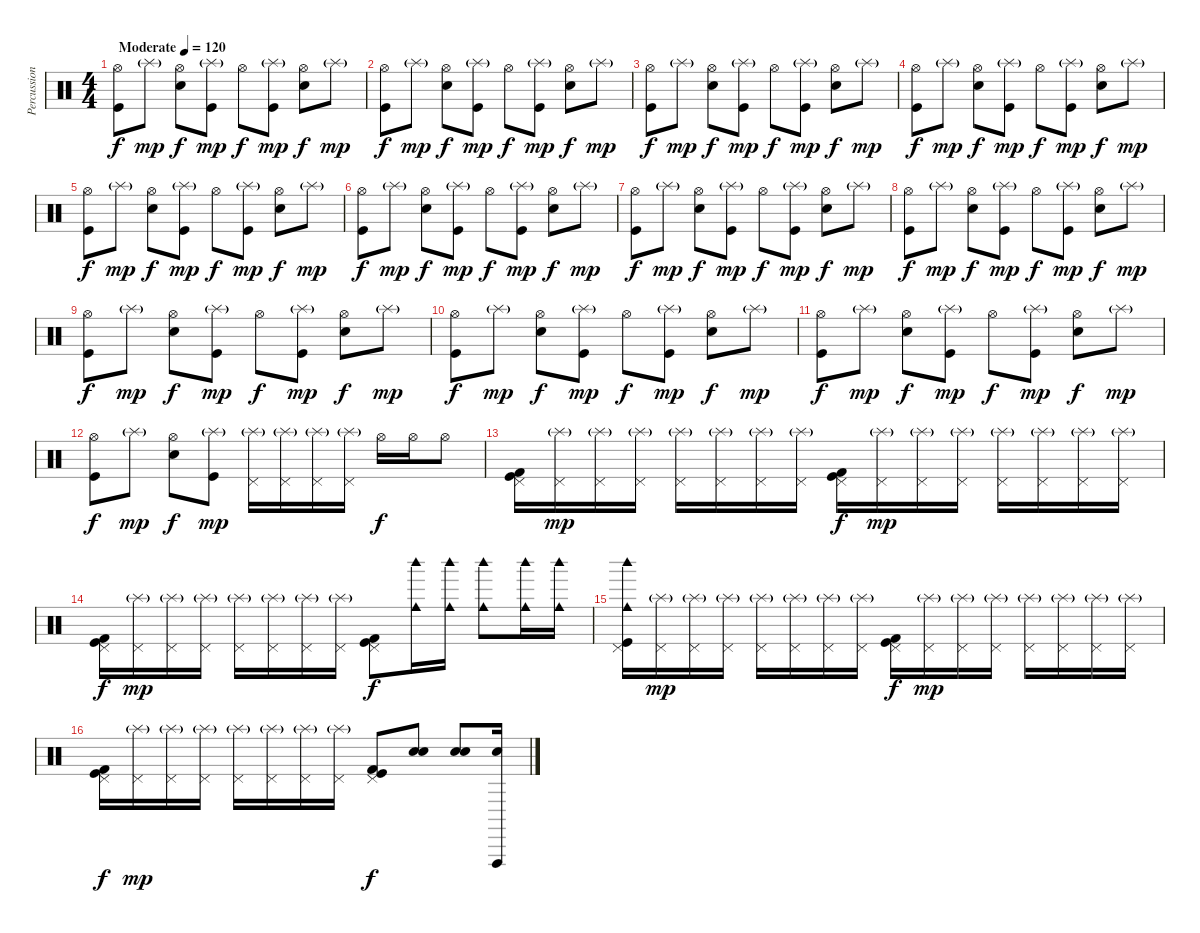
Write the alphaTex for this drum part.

\track ("Percussion" "Percussion") {instrument percussion}
\staff {score}
\articulation defaults
\ts (4 4)
\tempo (120 "Moderate")
\clef neutral
\ks c
("Hi-Hat (open)" "Kick (hit)").8{dy f} "Splash (hit)"{g}.8{dy mp} ("Hi-Hat (open)" "Electric Snare (hit)").8{dy f} ("Splash (hit)"{g} "Kick (hit)").8{dy mp} "Hi-Hat (open)".8{dy f} ("Splash (hit)"{g} "Kick (hit)").8{dy mp} ("Hi-Hat (open)" "Electric Snare (hit)").8{dy f} "Splash (hit)"{g}.8{dy mp} |
("Hi-Hat (open)" "Kick (hit)").8{dy f} "Splash (hit)"{g}.8{dy mp} ("Hi-Hat (open)" "Electric Snare (hit)").8{dy f} ("Splash (hit)"{g} "Kick (hit)").8{dy mp} "Hi-Hat (open)".8{dy f} ("Splash (hit)"{g} "Kick (hit)").8{dy mp} ("Hi-Hat (open)" "Electric Snare (hit)").8{dy f} "Splash (hit)"{g}.8{dy mp} |
("Hi-Hat (open)" "Kick (hit)").8{dy f} "Splash (hit)"{g}.8{dy mp} ("Hi-Hat (open)" "Electric Snare (hit)").8{dy f} ("Splash (hit)"{g} "Kick (hit)").8{dy mp} "Hi-Hat (open)".8{dy f} ("Splash (hit)"{g} "Kick (hit)").8{dy mp} ("Hi-Hat (open)" "Electric Snare (hit)").8{dy f} "Splash (hit)"{g}.8{dy mp} |
("Hi-Hat (open)" "Kick (hit)").8{dy f} "Splash (hit)"{g}.8{dy mp} ("Hi-Hat (open)" "Electric Snare (hit)").8{dy f} ("Splash (hit)"{g} "Kick (hit)").8{dy mp} "Hi-Hat (open)".8{dy f} ("Splash (hit)"{g} "Kick (hit)").8{dy mp} ("Hi-Hat (open)" "Electric Snare (hit)").8{dy f} "Splash (hit)"{g}.8{dy mp} |
("Hi-Hat (open)" "Kick (hit)").8{dy f} "Splash (hit)"{g}.8{dy mp} ("Hi-Hat (open)" "Electric Snare (hit)").8{dy f} ("Splash (hit)"{g} "Kick (hit)").8{dy mp} "Hi-Hat (open)".8{dy f} ("Splash (hit)"{g} "Kick (hit)").8{dy mp} ("Hi-Hat (open)" "Electric Snare (hit)").8{dy f} "Splash (hit)"{g}.8{dy mp} |
("Hi-Hat (open)" "Kick (hit)").8{dy f} "Splash (hit)"{g}.8{dy mp} ("Hi-Hat (open)" "Electric Snare (hit)").8{dy f} ("Splash (hit)"{g} "Kick (hit)").8{dy mp} "Hi-Hat (open)".8{dy f} ("Splash (hit)"{g} "Kick (hit)").8{dy mp} ("Hi-Hat (open)" "Electric Snare (hit)").8{dy f} "Splash (hit)"{g}.8{dy mp} |
("Hi-Hat (open)" "Kick (hit)").8{dy f} "Splash (hit)"{g}.8{dy mp} ("Hi-Hat (open)" "Electric Snare (hit)").8{dy f} ("Splash (hit)"{g} "Kick (hit)").8{dy mp} "Hi-Hat (open)".8{dy f} ("Splash (hit)"{g} "Kick (hit)").8{dy mp} ("Hi-Hat (open)" "Electric Snare (hit)").8{dy f} "Splash (hit)"{g}.8{dy mp} |
("Hi-Hat (open)" "Kick (hit)").8{dy f} "Splash (hit)"{g}.8{dy mp} ("Hi-Hat (open)" "Electric Snare (hit)").8{dy f} ("Splash (hit)"{g} "Kick (hit)").8{dy mp} "Hi-Hat (open)".8{dy f} ("Splash (hit)"{g} "Kick (hit)").8{dy mp} ("Hi-Hat (open)" "Electric Snare (hit)").8{dy f} "Splash (hit)"{g}.8{dy mp} |
("Hi-Hat (open)" "Kick (hit)").8{dy f} "Splash (hit)"{g}.8{dy mp} ("Hi-Hat (open)" "Electric Snare (hit)").8{dy f} ("Splash (hit)"{g} "Kick (hit)").8{dy mp} "Hi-Hat (open)".8{dy f} ("Splash (hit)"{g} "Kick (hit)").8{dy mp} ("Hi-Hat (open)" "Electric Snare (hit)").8{dy f} "Splash (hit)"{g}.8{dy mp} |
("Hi-Hat (open)" "Kick (hit)").8{dy f} "Splash (hit)"{g}.8{dy mp} ("Hi-Hat (open)" "Electric Snare (hit)").8{dy f} ("Splash (hit)"{g} "Kick (hit)").8{dy mp} "Hi-Hat (open)".8{dy f} ("Splash (hit)"{g} "Kick (hit)").8{dy mp} ("Hi-Hat (open)" "Electric Snare (hit)").8{dy f} "Splash (hit)"{g}.8{dy mp} |
("Hi-Hat (open)" "Kick (hit)").8{dy f} "Splash (hit)"{g}.8{dy mp} ("Hi-Hat (open)" "Electric Snare (hit)").8{dy f} ("Splash (hit)"{g} "Kick (hit)").8{dy mp} "Hi-Hat (open)".8{dy f} ("Splash (hit)"{g} "Kick (hit)").8{dy mp} ("Hi-Hat (open)" "Electric Snare (hit)").8{dy f} "Splash (hit)"{g}.8{dy mp} |
("Hi-Hat (open)" "Kick (hit)").8{dy f} "Splash (hit)"{g}.8{dy mp} ("Hi-Hat (open)" "Electric Snare (hit)").8{dy f} ("Splash (hit)"{g} "Kick (hit)").8{dy mp} ("Pedal Hi-Hat (hit)" "Splash (hit)"{g}).16 ("Pedal Hi-Hat (hit)" "Splash (hit)"{g}).16 ("Pedal Hi-Hat (hit)" "Splash (hit)"{g}).16 ("Pedal Hi-Hat (hit)" "Splash (hit)"{g}).16 "Hi-Hat (open)".16{dy f} "Hi-Hat (open)".16 "Hi-Hat (open)".8 |
("Kick (hit) 2" "Pedal Hi-Hat (hit)" "Kick (hit)").16 ("Pedal Hi-Hat (hit)" "Splash (hit)"{g}).16{dy mp} ("Pedal Hi-Hat (hit)" "Splash (hit)"{g}).16 ("Pedal Hi-Hat (hit)" "Splash (hit)"{g}).16 ("Pedal Hi-Hat (hit)" "Splash (hit)"{g}).16 ("Pedal Hi-Hat (hit)" "Splash (hit)"{g}).16 ("Pedal Hi-Hat (hit)" "Splash (hit)"{g}).16 ("Pedal Hi-Hat (hit)" "Splash (hit)"{g}).16 ("Kick (hit) 2" "Pedal Hi-Hat (hit)" "Kick (hit)").16{dy f} ("Pedal Hi-Hat (hit)" "Splash (hit)"{g}).16{dy mp} ("Pedal Hi-Hat (hit)" "Splash (hit)"{g}).16 ("Pedal Hi-Hat (hit)" "Splash (hit)"{g}).16 ("Pedal Hi-Hat (hit)" "Splash (hit)"{g}).16 ("Pedal Hi-Hat (hit)" "Splash (hit)"{g}).16 ("Pedal Hi-Hat (hit)" "Splash (hit)"{g}).16 ("Pedal Hi-Hat (hit)" "Splash (hit)"{g}).16 |
("Kick (hit) 2" "Pedal Hi-Hat (hit)" "Kick (hit)").16{dy f} ("Pedal Hi-Hat (hit)" "Splash (hit)"{g}).16{dy mp} ("Pedal Hi-Hat (hit)" "Splash (hit)"{g}).16 ("Pedal Hi-Hat (hit)" "Splash (hit)"{g}).16 ("Pedal Hi-Hat (hit)" "Splash (hit)"{g}).16 ("Pedal Hi-Hat (hit)" "Splash (hit)"{g}).16 ("Pedal Hi-Hat (hit)" "Splash (hit)"{g}).16 ("Pedal Hi-Hat (hit)" "Splash (hit)"{g}).16 ("Kick (hit) 2" "Pedal Hi-Hat (hit)" "Kick (hit)").8{dy f} ("Cowbell medium (hit)" "Woodblock high (hit)").16 ("Cowbell medium (hit)" "Woodblock high (hit)").16 ("Cowbell medium (hit)" "Woodblock high (hit)").8 ("Cowbell medium (hit)" "Woodblock high (hit)").16 ("Cowbell medium (hit)" "Woodblock high (hit)").16 |
("Woodblock high (hit)" "Cowbell medium (hit)" "Pedal Hi-Hat (hit)" "Kick (hit)").16 ("Pedal Hi-Hat (hit)" "Splash (hit)"{g}).16{dy mp} ("Pedal Hi-Hat (hit)" "Splash (hit)"{g}).16 ("Pedal Hi-Hat (hit)" "Splash (hit)"{g}).16 ("Pedal Hi-Hat (hit)" "Splash (hit)"{g}).16 ("Pedal Hi-Hat (hit)" "Splash (hit)"{g}).16 ("Pedal Hi-Hat (hit)" "Splash (hit)"{g}).16 ("Pedal Hi-Hat (hit)" "Splash (hit)"{g}).16 ("Kick (hit) 2" "Pedal Hi-Hat (hit)" "Kick (hit)").16{dy f} ("Pedal Hi-Hat (hit)" "Splash (hit)"{g}).16{dy mp} ("Pedal Hi-Hat (hit)" "Splash (hit)"{g}).16 ("Pedal Hi-Hat (hit)" "Splash (hit)"{g}).16 ("Pedal Hi-Hat (hit)" "Splash (hit)"{g}).16 ("Pedal Hi-Hat (hit)" "Splash (hit)"{g}).16 ("Pedal Hi-Hat (hit)" "Splash (hit)"{g}).16 ("Pedal Hi-Hat (hit)" "Splash (hit)"{g}).16 |
("Kick (hit) 2" "Pedal Hi-Hat (hit)" "Kick (hit)").16{dy f} ("Pedal Hi-Hat (hit)" "Splash (hit)"{g}).16{dy mp} ("Pedal Hi-Hat (hit)" "Splash (hit)"{g}).16 ("Pedal Hi-Hat (hit)" "Splash (hit)"{g}).16 ("Pedal Hi-Hat (hit)" "Splash (hit)"{g}).16 ("Pedal Hi-Hat (hit)" "Splash (hit)"{g}).16 ("Pedal Hi-Hat (hit)" "Splash (hit)"{g}).16 ("Pedal Hi-Hat (hit)" "Splash (hit)"{g}).16 ("Kick (hit) 2" "Pedal Hi-Hat (hit)" "Kick (hit)").8{dy f} ("Electric Snare (hit)" "Electric Snare (hit)").8 ("Electric Snare (hit)" "Electric Snare (hit)").8 ("Electric Snare (hit)" "Vibraslap (hit)").16
